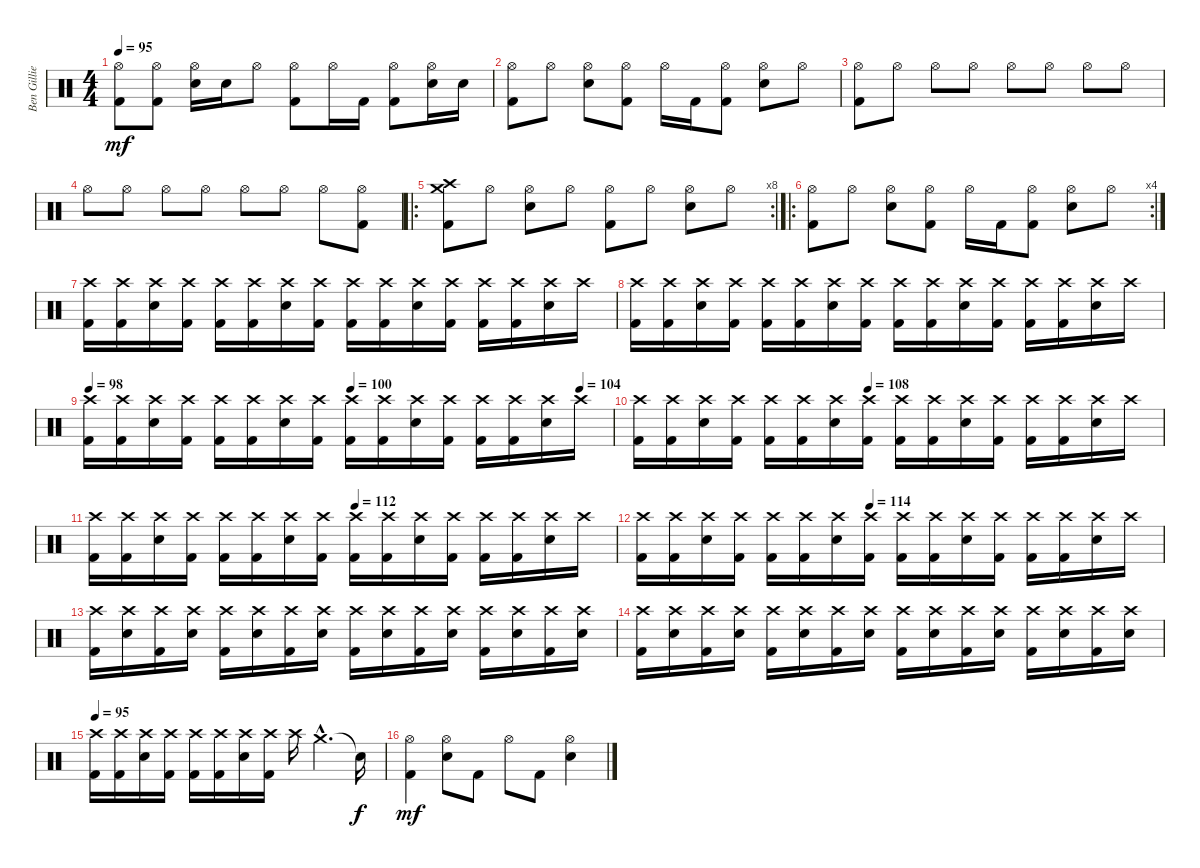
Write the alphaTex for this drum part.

\track ("Ben Gillies" "Ben Gillie") {instrument percussion}
\staff {score}
\articulation defaults
\ts (4 4)
\tempo 95
\clef neutral
\ks c
("Hi-Hat (open)" "Kick (hit) 2").8{dy mf} ("Hi-Hat (open)" "Kick (hit) 2").8 ("Hi-Hat (open)" "Electric Snare (hit)").16 "Electric Snare (hit)".16 "Hi-Hat (open)".8 ("Hi-Hat (open)" "Kick (hit) 2").8 "Hi-Hat (open)".16 "Kick (hit) 2".16 ("Hi-Hat (open)" "Kick (hit) 2").8 ("Hi-Hat (open)" "Electric Snare (hit)").16 "Electric Snare (hit)".16 |
("Hi-Hat (open)" "Kick (hit) 2").8 "Hi-Hat (open)".8 ("Hi-Hat (open)" "Electric Snare (hit)").8 ("Hi-Hat (open)" "Kick (hit) 2").8 "Hi-Hat (open)".16 "Kick (hit) 2".16 ("Hi-Hat (open)" "Kick (hit) 2").8 ("Hi-Hat (open)" "Electric Snare (hit)").8 "Hi-Hat (open)".8 |
("Hi-Hat (open)" "Kick (hit) 2").8 "Hi-Hat (open)".8 "Hi-Hat (open)".8 "Hi-Hat (open)".8 "Hi-Hat (open)".8 "Hi-Hat (open)".8 "Hi-Hat (open)".8 "Hi-Hat (open)".8 |
"Hi-Hat (open)".8 "Hi-Hat (open)".8 "Hi-Hat (open)".8 "Hi-Hat (open)".8 "Hi-Hat (open)".8 "Hi-Hat (open)".8 "Hi-Hat (open)".8 ("Hi-Hat (open)" "Kick (hit) 2").8 |
\ro
\rc 8
("Crash high (hit)" "Crash medium (hit)" "Kick (hit) 2").8 "Hi-Hat (open)".8 ("Hi-Hat (open)" "Electric Snare (hit)").8 "Hi-Hat (open)".8 ("Hi-Hat (open)" "Kick (hit) 2").8 "Hi-Hat (open)".8 ("Hi-Hat (open)" "Electric Snare (hit)").8 "Hi-Hat (open)".8 |
\ro
\rc 4
("Hi-Hat (open)" "Kick (hit) 2").8 "Hi-Hat (open)".8 ("Hi-Hat (open)" "Electric Snare (hit)").8 ("Hi-Hat (open)" "Kick (hit) 2").8 "Hi-Hat (open)".16 "Kick (hit) 2".16 ("Hi-Hat (open)" "Kick (hit) 2").8 ("Hi-Hat (open)" "Electric Snare (hit)").8 "Hi-Hat (open)".8 |
("Crash high (hit)" "Kick (hit) 2").16 ("Crash high (hit)" "Kick (hit) 2").16 ("Crash high (hit)" "Electric Snare (hit)").16 ("Crash high (hit)" "Kick (hit) 2").16 ("Crash high (hit)" "Kick (hit) 2").16 ("Crash high (hit)" "Kick (hit) 2").16 ("Crash high (hit)" "Electric Snare (hit)").16 ("Crash high (hit)" "Kick (hit) 2").16 ("Crash high (hit)" "Kick (hit) 2").16 ("Crash high (hit)" "Kick (hit) 2").16 ("Crash high (hit)" "Electric Snare (hit)").16 ("Crash high (hit)" "Kick (hit) 2").16 ("Crash high (hit)" "Kick (hit) 2").16 ("Crash high (hit)" "Kick (hit) 2").16 ("Crash high (hit)" "Electric Snare (hit)").16 "Crash high (hit)".16 |
("Crash high (hit)" "Kick (hit) 2").16 ("Crash high (hit)" "Kick (hit) 2").16 ("Crash high (hit)" "Electric Snare (hit)").16 ("Crash high (hit)" "Kick (hit) 2").16 ("Crash high (hit)" "Kick (hit) 2").16 ("Crash high (hit)" "Kick (hit) 2").16 ("Crash high (hit)" "Electric Snare (hit)").16 ("Crash high (hit)" "Kick (hit) 2").16 ("Crash high (hit)" "Kick (hit) 2").16 ("Crash high (hit)" "Kick (hit) 2").16 ("Crash high (hit)" "Electric Snare (hit)").16 ("Crash high (hit)" "Kick (hit) 2").16 ("Crash high (hit)" "Kick (hit) 2").16 ("Crash high (hit)" "Kick (hit) 2").16 ("Crash high (hit)" "Electric Snare (hit)").16 "Crash high (hit)".16 |
\tempo 98
\tempo (100 0.5)
\tempo (104 0.9375)
("Crash high (hit)" "Kick (hit) 2").16 ("Crash high (hit)" "Kick (hit) 2").16 ("Crash high (hit)" "Electric Snare (hit)").16 ("Crash high (hit)" "Kick (hit) 2").16 ("Crash high (hit)" "Kick (hit) 2").16 ("Crash high (hit)" "Kick (hit) 2").16 ("Crash high (hit)" "Electric Snare (hit)").16 ("Crash high (hit)" "Kick (hit) 2").16 ("Crash high (hit)" "Kick (hit) 2").16 ("Crash high (hit)" "Kick (hit) 2").16 ("Crash high (hit)" "Electric Snare (hit)").16 ("Crash high (hit)" "Kick (hit) 2").16 ("Crash high (hit)" "Kick (hit) 2").16 ("Crash high (hit)" "Kick (hit) 2").16 ("Crash high (hit)" "Electric Snare (hit)").16 "Crash high (hit)".16 |
\tempo (108 0.4375)
("Crash high (hit)" "Kick (hit) 2").16 ("Crash high (hit)" "Kick (hit) 2").16 ("Crash high (hit)" "Electric Snare (hit)").16 ("Crash high (hit)" "Kick (hit) 2").16 ("Crash high (hit)" "Kick (hit) 2").16 ("Crash high (hit)" "Kick (hit) 2").16 ("Crash high (hit)" "Electric Snare (hit)").16 ("Crash high (hit)" "Kick (hit) 2").16 ("Crash high (hit)" "Kick (hit) 2").16 ("Crash high (hit)" "Kick (hit) 2").16 ("Crash high (hit)" "Electric Snare (hit)").16 ("Crash high (hit)" "Kick (hit) 2").16 ("Crash high (hit)" "Kick (hit) 2").16 ("Crash high (hit)" "Kick (hit) 2").16 ("Crash high (hit)" "Electric Snare (hit)").16 "Crash high (hit)".16 |
\tempo (112 0.5)
("Crash high (hit)" "Kick (hit) 2").16 ("Crash high (hit)" "Kick (hit) 2").16 ("Crash high (hit)" "Electric Snare (hit)").16 ("Crash high (hit)" "Kick (hit) 2").16 ("Crash high (hit)" "Kick (hit) 2").16 ("Crash high (hit)" "Kick (hit) 2").16 ("Crash high (hit)" "Electric Snare (hit)").16 ("Crash high (hit)" "Kick (hit) 2").16 ("Crash high (hit)" "Kick (hit) 2").16 ("Crash high (hit)" "Kick (hit) 2").16 ("Crash high (hit)" "Electric Snare (hit)").16 ("Crash high (hit)" "Kick (hit) 2").16 ("Crash high (hit)" "Kick (hit) 2").16 ("Crash high (hit)" "Kick (hit) 2").16 ("Crash high (hit)" "Electric Snare (hit)").16 "Crash high (hit)".16 |
\tempo (114 0.4375)
("Crash high (hit)" "Kick (hit) 2").16 ("Crash high (hit)" "Kick (hit) 2").16 ("Crash high (hit)" "Electric Snare (hit)").16 ("Crash high (hit)" "Kick (hit) 2").16 ("Crash high (hit)" "Kick (hit) 2").16 ("Crash high (hit)" "Kick (hit) 2").16 ("Crash high (hit)" "Electric Snare (hit)").16 ("Crash high (hit)" "Kick (hit) 2").16 ("Crash high (hit)" "Kick (hit) 2").16 ("Crash high (hit)" "Kick (hit) 2").16 ("Crash high (hit)" "Electric Snare (hit)").16 ("Crash high (hit)" "Kick (hit) 2").16 ("Crash high (hit)" "Kick (hit) 2").16 ("Crash high (hit)" "Kick (hit) 2").16 ("Crash high (hit)" "Electric Snare (hit)").16 "Crash high (hit)".16 |
("Crash high (hit)" "Kick (hit) 2").16 ("Crash high (hit)" "Electric Snare (hit)").16 ("Crash high (hit)" "Kick (hit) 2").16 ("Crash high (hit)" "Electric Snare (hit)").16 ("Crash high (hit)" "Kick (hit) 2").16 ("Crash high (hit)" "Electric Snare (hit)").16 ("Crash high (hit)" "Kick (hit) 2").16 ("Crash high (hit)" "Electric Snare (hit)").16 ("Crash high (hit)" "Kick (hit) 2").16 ("Crash high (hit)" "Electric Snare (hit)").16 ("Crash high (hit)" "Kick (hit) 2").16 ("Crash high (hit)" "Electric Snare (hit)").16 ("Crash high (hit)" "Kick (hit) 2").16 ("Crash high (hit)" "Electric Snare (hit)").16 ("Crash high (hit)" "Kick (hit) 2").16 ("Crash high (hit)" "Electric Snare (hit)").16 |
("Crash high (hit)" "Kick (hit) 2").16 ("Crash high (hit)" "Electric Snare (hit)").16 ("Crash high (hit)" "Kick (hit) 2").16 ("Crash high (hit)" "Electric Snare (hit)").16 ("Crash high (hit)" "Kick (hit) 2").16 ("Crash high (hit)" "Electric Snare (hit)").16 ("Crash high (hit)" "Kick (hit) 2").16 ("Crash high (hit)" "Electric Snare (hit)").16 ("Crash high (hit)" "Kick (hit) 2").16 ("Crash high (hit)" "Electric Snare (hit)").16 ("Crash high (hit)" "Kick (hit) 2").16 ("Crash high (hit)" "Electric Snare (hit)").16 ("Crash high (hit)" "Kick (hit) 2").16 ("Crash high (hit)" "Electric Snare (hit)").16 ("Crash high (hit)" "Kick (hit) 2").16 ("Crash high (hit)" "Electric Snare (hit)").16 |
\tempo 95
("Crash high (hit)" "Kick (hit) 2").16 ("Crash high (hit)" "Kick (hit) 2").16 ("Crash high (hit)" "Electric Snare (hit)").16 ("Crash high (hit)" "Kick (hit) 2").16 ("Crash high (hit)" "Kick (hit) 2").16 ("Crash high (hit)" "Kick (hit) 2").16 ("Crash high (hit)" "Electric Snare (hit)").16 ("Crash high (hit)" "Kick (hit) 2").16 "Crash high (hit)".16 "Crash medium (hit)"{hac}.4{d} "Snare (hit)"{t}.16{dy f} |
("Hi-Hat (open)" "Kick (hit) 2").4{dy mf} ("Hi-Hat (open)" "Electric Snare (hit)").8 "Kick (hit) 2".8 "Hi-Hat (open)".8 "Kick (hit) 2".8 ("Hi-Hat (open)" "Electric Snare (hit)").4
